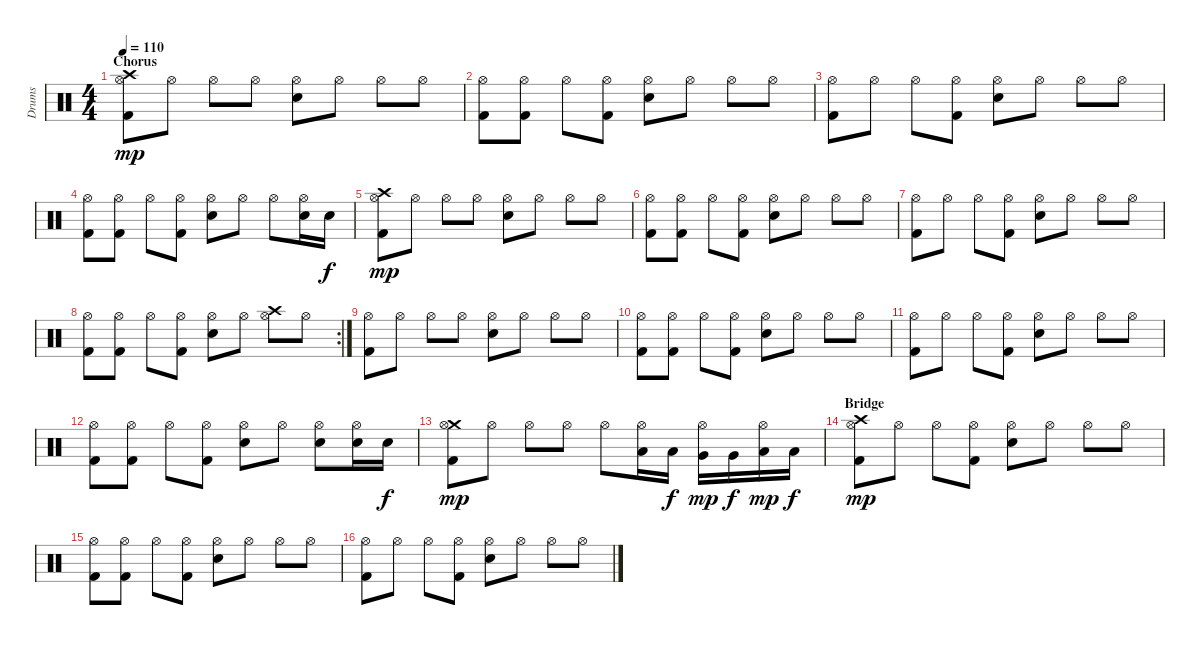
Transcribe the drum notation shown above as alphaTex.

\track ("Drums" "Drums") {instrument percussion}
\staff {score}
\articulation defaults
\ts (4 4)
\section ("" "Chorus")
\tempo 110
\clef neutral
\ks c
("Crash high (hit)" "Hi-Hat (open)" "Kick (hit) 2").8{dy mp} "Hi-Hat (open)".8 "Hi-Hat (open)".8 "Hi-Hat (open)".8 ("Hi-Hat (open)" "Snare (hit) 2").8 "Hi-Hat (open)".8 "Hi-Hat (open)".8 "Hi-Hat (open)".8 |
("Hi-Hat (open)" "Kick (hit) 2").8 ("Hi-Hat (open)" "Kick (hit) 2").8 "Hi-Hat (open)".8 ("Hi-Hat (open)" "Kick (hit) 2").8 ("Hi-Hat (open)" "Snare (hit) 2").8 "Hi-Hat (open)".8 "Hi-Hat (open)".8 "Hi-Hat (open)".8 |
("Hi-Hat (open)" "Kick (hit) 2").8 "Hi-Hat (open)".8 "Hi-Hat (open)".8 ("Hi-Hat (open)" "Kick (hit) 2").8 ("Hi-Hat (open)" "Snare (hit) 2").8 "Hi-Hat (open)".8 "Hi-Hat (open)".8 "Hi-Hat (open)".8 |
("Hi-Hat (open)" "Kick (hit) 2").8 ("Hi-Hat (open)" "Kick (hit) 2").8 "Hi-Hat (open)".8 ("Hi-Hat (open)" "Kick (hit) 2").8 ("Hi-Hat (open)" "Snare (hit) 2").8 "Hi-Hat (open)".8 "Hi-Hat (open)".8 ("Hi-Hat (open)" "Snare (hit) 2").16 "Snare (hit) 2".16{dy f} |
("Crash high (hit)" "Hi-Hat (open)" "Kick (hit) 2").8{dy mp} "Hi-Hat (open)".8 "Hi-Hat (open)".8 "Hi-Hat (open)".8 ("Hi-Hat (open)" "Snare (hit) 2").8 "Hi-Hat (open)".8 "Hi-Hat (open)".8 "Hi-Hat (open)".8 |
("Hi-Hat (open)" "Kick (hit) 2").8 ("Hi-Hat (open)" "Kick (hit) 2").8 "Hi-Hat (open)".8 ("Hi-Hat (open)" "Kick (hit) 2").8 ("Hi-Hat (open)" "Snare (hit) 2").8 "Hi-Hat (open)".8 "Hi-Hat (open)".8 "Hi-Hat (open)".8 |
("Hi-Hat (open)" "Kick (hit) 2").8 "Hi-Hat (open)".8 "Hi-Hat (open)".8 ("Hi-Hat (open)" "Kick (hit) 2").8 ("Hi-Hat (open)" "Snare (hit) 2").8 "Hi-Hat (open)".8 "Hi-Hat (open)".8 "Hi-Hat (open)".8 |
\rc 2
("Hi-Hat (open)" "Kick (hit) 2").8 ("Hi-Hat (open)" "Kick (hit) 2").8 "Hi-Hat (open)".8 ("Hi-Hat (open)" "Kick (hit) 2").8 ("Hi-Hat (open)" "Snare (hit) 2").8 "Hi-Hat (open)".8 ("Crash high (hit)" "Hi-Hat (open)").8 "Hi-Hat (open)".8 |
("Hi-Hat (open)" "Kick (hit) 2").8 "Hi-Hat (open)".8 "Hi-Hat (open)".8 "Hi-Hat (open)".8 ("Hi-Hat (open)" "Snare (hit) 2").8 "Hi-Hat (open)".8 "Hi-Hat (open)".8 "Hi-Hat (open)".8 |
("Hi-Hat (open)" "Kick (hit) 2").8 ("Hi-Hat (open)" "Kick (hit) 2").8 "Hi-Hat (open)".8 ("Hi-Hat (open)" "Kick (hit) 2").8 ("Hi-Hat (open)" "Snare (hit) 2").8 "Hi-Hat (open)".8 "Hi-Hat (open)".8 "Hi-Hat (open)".8 |
("Hi-Hat (open)" "Kick (hit) 2").8 "Hi-Hat (open)".8 "Hi-Hat (open)".8 ("Hi-Hat (open)" "Kick (hit) 2").8 ("Hi-Hat (open)" "Snare (hit) 2").8 "Hi-Hat (open)".8 "Hi-Hat (open)".8 "Hi-Hat (open)".8 |
("Hi-Hat (open)" "Kick (hit) 2").8 ("Hi-Hat (open)" "Kick (hit) 2").8 "Hi-Hat (open)".8 ("Hi-Hat (open)" "Kick (hit) 2").8 ("Hi-Hat (open)" "Snare (hit) 2").8 "Hi-Hat (open)".8 ("Hi-Hat (open)" "Snare (hit) 2").8 ("Hi-Hat (open)" "Snare (hit) 2").16 "Snare (hit) 2".16{dy f} |
("Crash medium (hit)" "Hi-Hat (open)" "Kick (hit) 2").8{dy mp} "Hi-Hat (open)".8 "Hi-Hat (open)".8 "Hi-Hat (open)".8 "Hi-Hat (open)".8 ("Hi-Hat (open)" "Low Tom (hit)").16 "Low Tom (hit)".16{dy f} ("Hi-Hat (open)" "Very Low Tom (hit)").16{dy mp} "Very Low Tom (hit)".16{dy f} ("Hi-Hat (open)" "Low Floor Tom (hit)").16{dy mp} "Low Floor Tom (hit)".16{dy f} |
\section ("" "Bridge")
("Crash high (hit)" "Hi-Hat (open)" "Kick (hit) 2").8{dy mp} "Hi-Hat (open)".8 "Hi-Hat (open)".8 ("Hi-Hat (open)" "Kick (hit) 2").8 ("Hi-Hat (open)" "Snare (hit) 2").8 "Hi-Hat (open)".8 "Hi-Hat (open)".8 "Hi-Hat (open)".8 |
("Hi-Hat (open)" "Kick (hit) 2").8 ("Hi-Hat (open)" "Kick (hit) 2").8 "Hi-Hat (open)".8 ("Hi-Hat (open)" "Kick (hit) 2").8 ("Hi-Hat (open)" "Snare (hit) 2").8 "Hi-Hat (open)".8 "Hi-Hat (open)".8 "Hi-Hat (open)".8 |
("Hi-Hat (open)" "Kick (hit) 2").8 "Hi-Hat (open)".8 "Hi-Hat (open)".8 ("Hi-Hat (open)" "Kick (hit) 2").8 ("Hi-Hat (open)" "Snare (hit) 2").8 "Hi-Hat (open)".8 "Hi-Hat (open)".8 "Hi-Hat (open)".8
